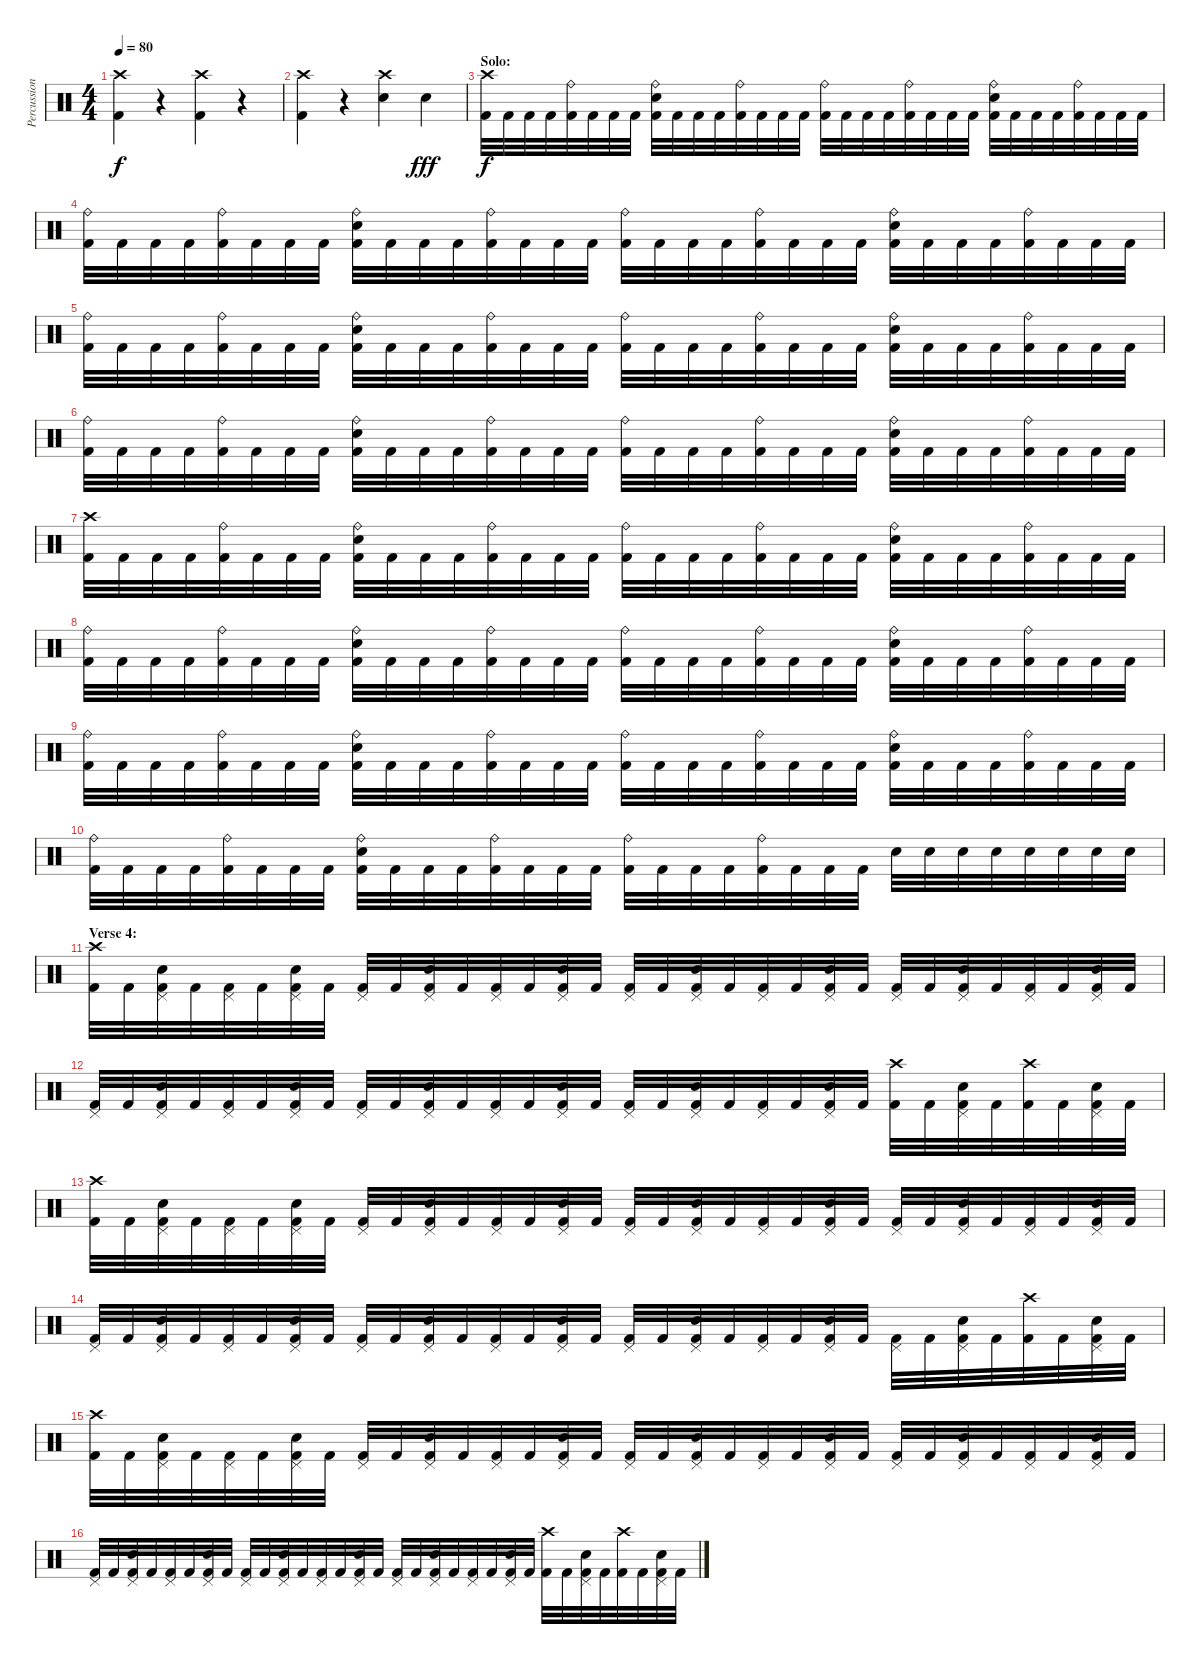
\track ("Percussion" "Percussion") {instrument percussion}
\staff {score}
\articulation defaults
\ts (4 4)
\tempo 80
\clef neutral
\ks c
("Crash high (hit)" "Kick (hit) 2").4{dy f} r.4 ("Crash high (hit)" "Kick (hit) 2").4 r.4 |
("Crash high (hit)" "Kick (hit) 2").4 r.4 ("Crash high (hit)" "Electric Snare (hit)").4 "Electric Snare (hit)".4{dy fff} |
\section ("" "Solo:")
("Crash high (hit)" "Kick (hit) 2").32{dy f} "Kick (hit) 2".32 "Kick (hit) 2".32 "Kick (hit) 2".32 ("Ride (bell)" "Kick (hit) 2").32 "Kick (hit) 2".32 "Kick (hit) 2".32 "Kick (hit) 2".32 ("Ride (bell)" "Electric Snare (hit)" "Kick (hit) 2").32 "Kick (hit) 2".32 "Kick (hit) 2".32 "Kick (hit) 2".32 ("Ride (bell)" "Kick (hit) 2").32 "Kick (hit) 2".32 "Kick (hit) 2".32 "Kick (hit) 2".32 ("Ride (bell)" "Kick (hit) 2").32 "Kick (hit) 2".32 "Kick (hit) 2".32 "Kick (hit) 2".32 ("Ride (bell)" "Kick (hit) 2").32 "Kick (hit) 2".32 "Kick (hit) 2".32 "Kick (hit) 2".32 ("Ride (bell)" "Electric Snare (hit)" "Kick (hit) 2").32 "Kick (hit) 2".32 "Kick (hit) 2".32 "Kick (hit) 2".32 ("Ride (bell)" "Kick (hit) 2").32 "Kick (hit) 2".32 "Kick (hit) 2".32 "Kick (hit) 2".32 |
("Ride (bell)" "Kick (hit) 2").32 "Kick (hit) 2".32 "Kick (hit) 2".32 "Kick (hit) 2".32 ("Ride (bell)" "Kick (hit) 2").32 "Kick (hit) 2".32 "Kick (hit) 2".32 "Kick (hit) 2".32 ("Ride (bell)" "Electric Snare (hit)" "Kick (hit) 2").32 "Kick (hit) 2".32 "Kick (hit) 2".32 "Kick (hit) 2".32 ("Ride (bell)" "Kick (hit) 2").32 "Kick (hit) 2".32 "Kick (hit) 2".32 "Kick (hit) 2".32 ("Ride (bell)" "Kick (hit) 2").32 "Kick (hit) 2".32 "Kick (hit) 2".32 "Kick (hit) 2".32 ("Ride (bell)" "Kick (hit) 2").32 "Kick (hit) 2".32 "Kick (hit) 2".32 "Kick (hit) 2".32 ("Ride (bell)" "Electric Snare (hit)" "Kick (hit) 2").32 "Kick (hit) 2".32 "Kick (hit) 2".32 "Kick (hit) 2".32 ("Ride (bell)" "Kick (hit) 2").32 "Kick (hit) 2".32 "Kick (hit) 2".32 "Kick (hit) 2".32 |
("Ride (bell)" "Kick (hit) 2").32 "Kick (hit) 2".32 "Kick (hit) 2".32 "Kick (hit) 2".32 ("Ride (bell)" "Kick (hit) 2").32 "Kick (hit) 2".32 "Kick (hit) 2".32 "Kick (hit) 2".32 ("Ride (bell)" "Electric Snare (hit)" "Kick (hit) 2").32 "Kick (hit) 2".32 "Kick (hit) 2".32 "Kick (hit) 2".32 ("Ride (bell)" "Kick (hit) 2").32 "Kick (hit) 2".32 "Kick (hit) 2".32 "Kick (hit) 2".32 ("Ride (bell)" "Kick (hit) 2").32 "Kick (hit) 2".32 "Kick (hit) 2".32 "Kick (hit) 2".32 ("Ride (bell)" "Kick (hit) 2").32 "Kick (hit) 2".32 "Kick (hit) 2".32 "Kick (hit) 2".32 ("Ride (bell)" "Electric Snare (hit)" "Kick (hit) 2").32 "Kick (hit) 2".32 "Kick (hit) 2".32 "Kick (hit) 2".32 ("Ride (bell)" "Kick (hit) 2").32 "Kick (hit) 2".32 "Kick (hit) 2".32 "Kick (hit) 2".32 |
("Ride (bell)" "Kick (hit) 2").32 "Kick (hit) 2".32 "Kick (hit) 2".32 "Kick (hit) 2".32 ("Ride (bell)" "Kick (hit) 2").32 "Kick (hit) 2".32 "Kick (hit) 2".32 "Kick (hit) 2".32 ("Ride (bell)" "Electric Snare (hit)" "Kick (hit) 2").32 "Kick (hit) 2".32 "Kick (hit) 2".32 "Kick (hit) 2".32 ("Ride (bell)" "Kick (hit) 2").32 "Kick (hit) 2".32 "Kick (hit) 2".32 "Kick (hit) 2".32 ("Ride (bell)" "Kick (hit) 2").32 "Kick (hit) 2".32 "Kick (hit) 2".32 "Kick (hit) 2".32 ("Ride (bell)" "Kick (hit) 2").32 "Kick (hit) 2".32 "Kick (hit) 2".32 "Kick (hit) 2".32 ("Ride (bell)" "Electric Snare (hit)" "Kick (hit) 2").32 "Kick (hit) 2".32 "Kick (hit) 2".32 "Kick (hit) 2".32 ("Ride (bell)" "Kick (hit) 2").32 "Kick (hit) 2".32 "Kick (hit) 2".32 "Kick (hit) 2".32 |
("Crash high (hit)" "Kick (hit) 2").32 "Kick (hit) 2".32 "Kick (hit) 2".32 "Kick (hit) 2".32 ("Ride (bell)" "Kick (hit) 2").32 "Kick (hit) 2".32 "Kick (hit) 2".32 "Kick (hit) 2".32 ("Ride (bell)" "Electric Snare (hit)" "Kick (hit) 2").32 "Kick (hit) 2".32 "Kick (hit) 2".32 "Kick (hit) 2".32 ("Ride (bell)" "Kick (hit) 2").32 "Kick (hit) 2".32 "Kick (hit) 2".32 "Kick (hit) 2".32 ("Ride (bell)" "Kick (hit) 2").32 "Kick (hit) 2".32 "Kick (hit) 2".32 "Kick (hit) 2".32 ("Ride (bell)" "Kick (hit) 2").32 "Kick (hit) 2".32 "Kick (hit) 2".32 "Kick (hit) 2".32 ("Ride (bell)" "Electric Snare (hit)" "Kick (hit) 2").32 "Kick (hit) 2".32 "Kick (hit) 2".32 "Kick (hit) 2".32 ("Ride (bell)" "Kick (hit) 2").32 "Kick (hit) 2".32 "Kick (hit) 2".32 "Kick (hit) 2".32 |
("Ride (bell)" "Kick (hit) 2").32 "Kick (hit) 2".32 "Kick (hit) 2".32 "Kick (hit) 2".32 ("Ride (bell)" "Kick (hit) 2").32 "Kick (hit) 2".32 "Kick (hit) 2".32 "Kick (hit) 2".32 ("Ride (bell)" "Electric Snare (hit)" "Kick (hit) 2").32 "Kick (hit) 2".32 "Kick (hit) 2".32 "Kick (hit) 2".32 ("Ride (bell)" "Kick (hit) 2").32 "Kick (hit) 2".32 "Kick (hit) 2".32 "Kick (hit) 2".32 ("Ride (bell)" "Kick (hit) 2").32 "Kick (hit) 2".32 "Kick (hit) 2".32 "Kick (hit) 2".32 ("Ride (bell)" "Kick (hit) 2").32 "Kick (hit) 2".32 "Kick (hit) 2".32 "Kick (hit) 2".32 ("Ride (bell)" "Electric Snare (hit)" "Kick (hit) 2").32 "Kick (hit) 2".32 "Kick (hit) 2".32 "Kick (hit) 2".32 ("Ride (bell)" "Kick (hit) 2").32 "Kick (hit) 2".32 "Kick (hit) 2".32 "Kick (hit) 2".32 |
("Ride (bell)" "Kick (hit) 2").32 "Kick (hit) 2".32 "Kick (hit) 2".32 "Kick (hit) 2".32 ("Ride (bell)" "Kick (hit) 2").32 "Kick (hit) 2".32 "Kick (hit) 2".32 "Kick (hit) 2".32 ("Ride (bell)" "Electric Snare (hit)" "Kick (hit) 2").32 "Kick (hit) 2".32 "Kick (hit) 2".32 "Kick (hit) 2".32 ("Ride (bell)" "Kick (hit) 2").32 "Kick (hit) 2".32 "Kick (hit) 2".32 "Kick (hit) 2".32 ("Ride (bell)" "Kick (hit) 2").32 "Kick (hit) 2".32 "Kick (hit) 2".32 "Kick (hit) 2".32 ("Ride (bell)" "Kick (hit) 2").32 "Kick (hit) 2".32 "Kick (hit) 2".32 "Kick (hit) 2".32 ("Ride (bell)" "Electric Snare (hit)" "Kick (hit) 2").32 "Kick (hit) 2".32 "Kick (hit) 2".32 "Kick (hit) 2".32 ("Ride (bell)" "Kick (hit) 2").32 "Kick (hit) 2".32 "Kick (hit) 2".32 "Kick (hit) 2".32 |
("Ride (bell)" "Kick (hit) 2").32 "Kick (hit) 2".32 "Kick (hit) 2".32 "Kick (hit) 2".32 ("Ride (bell)" "Kick (hit) 2").32 "Kick (hit) 2".32 "Kick (hit) 2".32 "Kick (hit) 2".32 ("Ride (bell)" "Electric Snare (hit)" "Kick (hit) 2").32 "Kick (hit) 2".32 "Kick (hit) 2".32 "Kick (hit) 2".32 ("Ride (bell)" "Kick (hit) 2").32 "Kick (hit) 2".32 "Kick (hit) 2".32 "Kick (hit) 2".32 ("Ride (bell)" "Kick (hit) 2").32 "Kick (hit) 2".32 "Kick (hit) 2".32 "Kick (hit) 2".32 ("Ride (bell)" "Kick (hit) 2").32 "Kick (hit) 2".32 "Kick (hit) 2".32 "Kick (hit) 2".32 "Electric Snare (hit)".32 "Electric Snare (hit)".32 "Electric Snare (hit)".32 "Electric Snare (hit)".32 "Electric Snare (hit)".32 "Electric Snare (hit)".32 "Electric Snare (hit)".32 "Electric Snare (hit)".32 |
\section ("" "Verse 4:")
("Crash high (hit)" "Kick (hit) 2").32 "Kick (hit) 2".32 ("Pedal Hi-Hat (hit)" "Electric Snare (hit)" "Kick (hit) 2").32 "Kick (hit) 2".32 ("Pedal Hi-Hat (hit)" "Kick (hit) 2").32 "Kick (hit) 2".32 ("Pedal Hi-Hat (hit)" "Electric Snare (hit)" "Kick (hit) 2").32 "Kick (hit) 2".32 ("Pedal Hi-Hat (hit)" "Kick (hit) 2").32 "Kick (hit) 2".32 ("Pedal Hi-Hat (hit)" "Electric Snare (hit)" "Kick (hit) 2").32 "Kick (hit) 2".32 ("Pedal Hi-Hat (hit)" "Kick (hit) 2").32 "Kick (hit) 2".32 ("Pedal Hi-Hat (hit)" "Electric Snare (hit)" "Kick (hit) 2").32 "Kick (hit) 2".32 ("Pedal Hi-Hat (hit)" "Kick (hit) 2").32 "Kick (hit) 2".32 ("Pedal Hi-Hat (hit)" "Electric Snare (hit)" "Kick (hit) 2").32 "Kick (hit) 2".32 ("Pedal Hi-Hat (hit)" "Kick (hit) 2").32 "Kick (hit) 2".32 ("Pedal Hi-Hat (hit)" "Electric Snare (hit)" "Kick (hit) 2").32 "Kick (hit) 2".32 ("Pedal Hi-Hat (hit)" "Kick (hit) 2").32 "Kick (hit) 2".32 ("Pedal Hi-Hat (hit)" "Electric Snare (hit)" "Kick (hit) 2").32 "Kick (hit) 2".32 ("Pedal Hi-Hat (hit)" "Kick (hit) 2").32 "Kick (hit) 2".32 ("Pedal Hi-Hat (hit)" "Electric Snare (hit)" "Kick (hit) 2").32 "Kick (hit) 2".32 |
("Pedal Hi-Hat (hit)" "Kick (hit) 2").32 "Kick (hit) 2".32 ("Pedal Hi-Hat (hit)" "Electric Snare (hit)" "Kick (hit) 2").32 "Kick (hit) 2".32 ("Pedal Hi-Hat (hit)" "Kick (hit) 2").32 "Kick (hit) 2".32 ("Pedal Hi-Hat (hit)" "Electric Snare (hit)" "Kick (hit) 2").32 "Kick (hit) 2".32 ("Pedal Hi-Hat (hit)" "Kick (hit) 2").32 "Kick (hit) 2".32 ("Pedal Hi-Hat (hit)" "Electric Snare (hit)" "Kick (hit) 2").32 "Kick (hit) 2".32 ("Pedal Hi-Hat (hit)" "Kick (hit) 2").32 "Kick (hit) 2".32 ("Pedal Hi-Hat (hit)" "Electric Snare (hit)" "Kick (hit) 2").32 "Kick (hit) 2".32 ("Pedal Hi-Hat (hit)" "Kick (hit) 2").32 "Kick (hit) 2".32 ("Pedal Hi-Hat (hit)" "Electric Snare (hit)" "Kick (hit) 2").32 "Kick (hit) 2".32 ("Pedal Hi-Hat (hit)" "Kick (hit) 2").32 "Kick (hit) 2".32 ("Pedal Hi-Hat (hit)" "Electric Snare (hit)" "Kick (hit) 2").32 "Kick (hit) 2".32 ("Crash high (hit)" "Kick (hit) 2").32 "Kick (hit) 2".32 ("Pedal Hi-Hat (hit)" "Electric Snare (hit)" "Kick (hit) 2").32 "Kick (hit) 2".32 ("Crash high (hit)" "Kick (hit) 2").32 "Kick (hit) 2".32 ("Pedal Hi-Hat (hit)" "Electric Snare (hit)" "Kick (hit) 2").32 "Kick (hit) 2".32 |
("Crash high (hit)" "Kick (hit) 2").32 "Kick (hit) 2".32 ("Pedal Hi-Hat (hit)" "Electric Snare (hit)" "Kick (hit) 2").32 "Kick (hit) 2".32 ("Pedal Hi-Hat (hit)" "Kick (hit) 2").32 "Kick (hit) 2".32 ("Pedal Hi-Hat (hit)" "Electric Snare (hit)" "Kick (hit) 2").32 "Kick (hit) 2".32 ("Pedal Hi-Hat (hit)" "Kick (hit) 2").32 "Kick (hit) 2".32 ("Pedal Hi-Hat (hit)" "Electric Snare (hit)" "Kick (hit) 2").32 "Kick (hit) 2".32 ("Pedal Hi-Hat (hit)" "Kick (hit) 2").32 "Kick (hit) 2".32 ("Pedal Hi-Hat (hit)" "Electric Snare (hit)" "Kick (hit) 2").32 "Kick (hit) 2".32 ("Pedal Hi-Hat (hit)" "Kick (hit) 2").32 "Kick (hit) 2".32 ("Pedal Hi-Hat (hit)" "Electric Snare (hit)" "Kick (hit) 2").32 "Kick (hit) 2".32 ("Pedal Hi-Hat (hit)" "Kick (hit) 2").32 "Kick (hit) 2".32 ("Pedal Hi-Hat (hit)" "Electric Snare (hit)" "Kick (hit) 2").32 "Kick (hit) 2".32 ("Pedal Hi-Hat (hit)" "Kick (hit) 2").32 "Kick (hit) 2".32 ("Pedal Hi-Hat (hit)" "Electric Snare (hit)" "Kick (hit) 2").32 "Kick (hit) 2".32 ("Pedal Hi-Hat (hit)" "Kick (hit) 2").32 "Kick (hit) 2".32 ("Pedal Hi-Hat (hit)" "Electric Snare (hit)" "Kick (hit) 2").32 "Kick (hit) 2".32 |
("Pedal Hi-Hat (hit)" "Kick (hit) 2").32 "Kick (hit) 2".32 ("Pedal Hi-Hat (hit)" "Electric Snare (hit)" "Kick (hit) 2").32 "Kick (hit) 2".32 ("Pedal Hi-Hat (hit)" "Kick (hit) 2").32 "Kick (hit) 2".32 ("Pedal Hi-Hat (hit)" "Electric Snare (hit)" "Kick (hit) 2").32 "Kick (hit) 2".32 ("Pedal Hi-Hat (hit)" "Kick (hit) 2").32 "Kick (hit) 2".32 ("Pedal Hi-Hat (hit)" "Electric Snare (hit)" "Kick (hit) 2").32 "Kick (hit) 2".32 ("Pedal Hi-Hat (hit)" "Kick (hit) 2").32 "Kick (hit) 2".32 ("Pedal Hi-Hat (hit)" "Electric Snare (hit)" "Kick (hit) 2").32 "Kick (hit) 2".32 ("Pedal Hi-Hat (hit)" "Kick (hit) 2").32 "Kick (hit) 2".32 ("Pedal Hi-Hat (hit)" "Electric Snare (hit)" "Kick (hit) 2").32 "Kick (hit) 2".32 ("Pedal Hi-Hat (hit)" "Kick (hit) 2").32 "Kick (hit) 2".32 ("Pedal Hi-Hat (hit)" "Electric Snare (hit)" "Kick (hit) 2").32 "Kick (hit) 2".32 ("Pedal Hi-Hat (hit)" "Kick (hit) 2").32 "Kick (hit) 2".32 ("Pedal Hi-Hat (hit)" "Electric Snare (hit)" "Kick (hit) 2").32 "Kick (hit) 2".32 ("Crash high (hit)" "Kick (hit) 2").32 "Kick (hit) 2".32 ("Pedal Hi-Hat (hit)" "Electric Snare (hit)" "Kick (hit) 2").32 "Kick (hit) 2".32 |
("Crash high (hit)" "Kick (hit) 2").32 "Kick (hit) 2".32 ("Pedal Hi-Hat (hit)" "Electric Snare (hit)" "Kick (hit) 2").32 "Kick (hit) 2".32 ("Pedal Hi-Hat (hit)" "Kick (hit) 2").32 "Kick (hit) 2".32 ("Pedal Hi-Hat (hit)" "Electric Snare (hit)" "Kick (hit) 2").32 "Kick (hit) 2".32 ("Pedal Hi-Hat (hit)" "Kick (hit) 2").32 "Kick (hit) 2".32 ("Pedal Hi-Hat (hit)" "Electric Snare (hit)" "Kick (hit) 2").32 "Kick (hit) 2".32 ("Pedal Hi-Hat (hit)" "Kick (hit) 2").32 "Kick (hit) 2".32 ("Pedal Hi-Hat (hit)" "Electric Snare (hit)" "Kick (hit) 2").32 "Kick (hit) 2".32 ("Pedal Hi-Hat (hit)" "Kick (hit) 2").32 "Kick (hit) 2".32 ("Pedal Hi-Hat (hit)" "Electric Snare (hit)" "Kick (hit) 2").32 "Kick (hit) 2".32 ("Pedal Hi-Hat (hit)" "Kick (hit) 2").32 "Kick (hit) 2".32 ("Pedal Hi-Hat (hit)" "Electric Snare (hit)" "Kick (hit) 2").32 "Kick (hit) 2".32 ("Pedal Hi-Hat (hit)" "Kick (hit) 2").32 "Kick (hit) 2".32 ("Pedal Hi-Hat (hit)" "Electric Snare (hit)" "Kick (hit) 2").32 "Kick (hit) 2".32 ("Pedal Hi-Hat (hit)" "Kick (hit) 2").32 "Kick (hit) 2".32 ("Pedal Hi-Hat (hit)" "Electric Snare (hit)" "Kick (hit) 2").32 "Kick (hit) 2".32 |
("Pedal Hi-Hat (hit)" "Kick (hit) 2").32 "Kick (hit) 2".32 ("Pedal Hi-Hat (hit)" "Electric Snare (hit)" "Kick (hit) 2").32 "Kick (hit) 2".32 ("Pedal Hi-Hat (hit)" "Kick (hit) 2").32 "Kick (hit) 2".32 ("Pedal Hi-Hat (hit)" "Electric Snare (hit)" "Kick (hit) 2").32 "Kick (hit) 2".32 ("Pedal Hi-Hat (hit)" "Kick (hit) 2").32 "Kick (hit) 2".32 ("Pedal Hi-Hat (hit)" "Electric Snare (hit)" "Kick (hit) 2").32 "Kick (hit) 2".32 ("Pedal Hi-Hat (hit)" "Kick (hit) 2").32 "Kick (hit) 2".32 ("Pedal Hi-Hat (hit)" "Electric Snare (hit)" "Kick (hit) 2").32 "Kick (hit) 2".32 ("Pedal Hi-Hat (hit)" "Kick (hit) 2").32 "Kick (hit) 2".32 ("Pedal Hi-Hat (hit)" "Electric Snare (hit)" "Kick (hit) 2").32 "Kick (hit) 2".32 ("Pedal Hi-Hat (hit)" "Kick (hit) 2").32 "Kick (hit) 2".32 ("Pedal Hi-Hat (hit)" "Electric Snare (hit)" "Kick (hit) 2").32 "Kick (hit) 2".32 ("Crash high (hit)" "Kick (hit) 2").32 "Kick (hit) 2".32 ("Pedal Hi-Hat (hit)" "Electric Snare (hit)" "Kick (hit) 2").32 "Kick (hit) 2".32 ("Crash high (hit)" "Kick (hit) 2").32 "Kick (hit) 2".32 ("Pedal Hi-Hat (hit)" "Electric Snare (hit)" "Kick (hit) 2").32 "Kick (hit) 2".32
